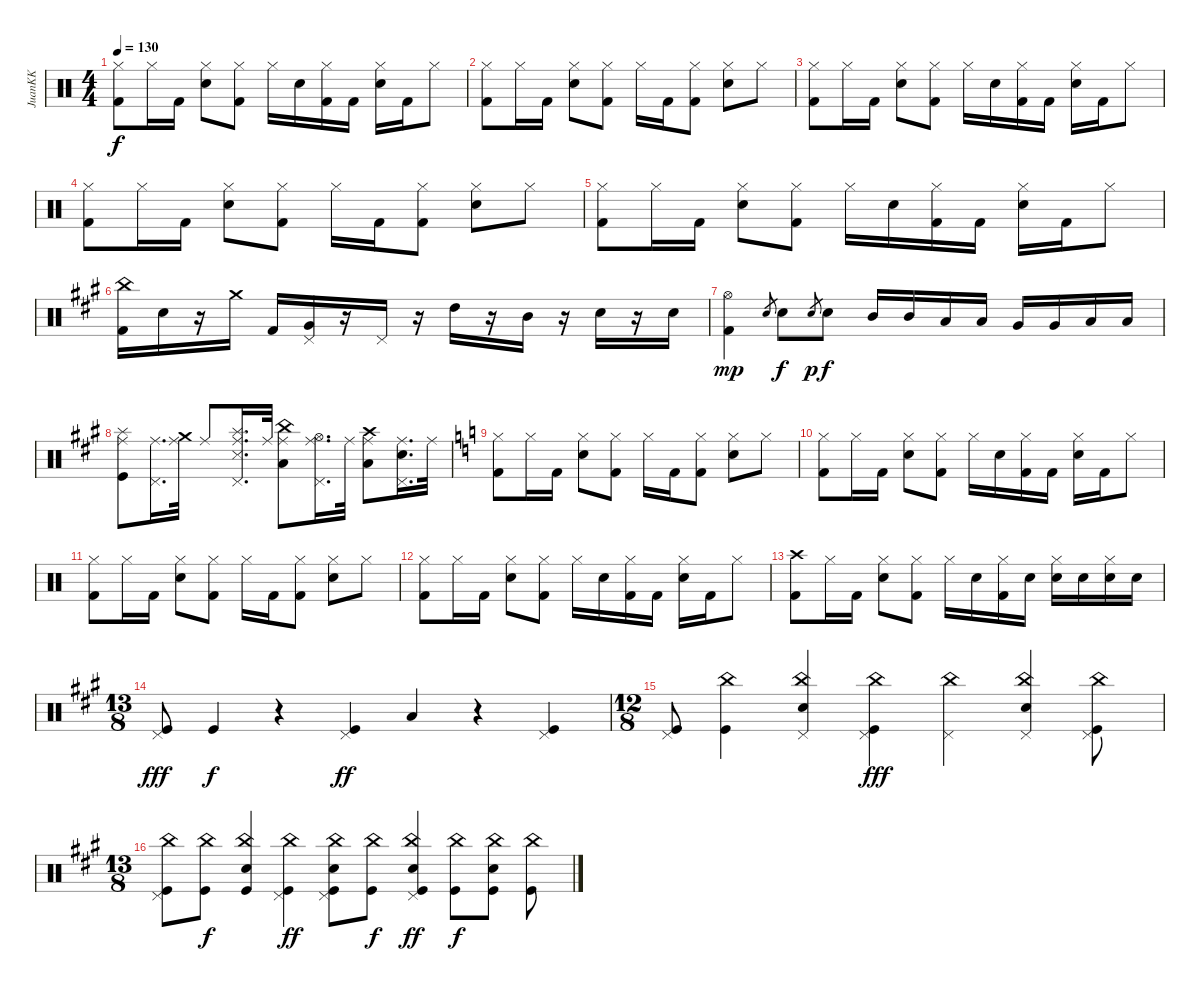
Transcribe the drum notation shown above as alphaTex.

\track ("JuanKK" "JuanKK") {instrument percussion}
\staff {score}
\articulation defaults
\ts (4 4)
\tempo 130
\clef neutral
\ks c
("Hi-Hat (closed)" "Kick (hit) 2").8{dy f} "Hi-Hat (closed)".16 "Kick (hit) 2".16 ("Hi-Hat (closed)" "Electric Snare (hit)").8 ("Hi-Hat (closed)" "Kick (hit) 2").8 "Hi-Hat (closed)".16 "Electric Snare (hit)".16 ("Hi-Hat (closed)" "Kick (hit) 2").16 "Kick (hit) 2".16 ("Hi-Hat (closed)" "Electric Snare (hit)").16 "Kick (hit) 2".16 "Hi-Hat (closed)".8 |
("Hi-Hat (closed)" "Kick (hit) 2").8 "Hi-Hat (closed)".16 "Kick (hit) 2".16 ("Hi-Hat (closed)" "Electric Snare (hit)").8 ("Hi-Hat (closed)" "Kick (hit) 2").8 "Hi-Hat (closed)".16 "Kick (hit) 2".16 ("Hi-Hat (closed)" "Kick (hit) 2").8 ("Hi-Hat (closed)" "Electric Snare (hit)").8 "Hi-Hat (closed)".8 |
("Hi-Hat (closed)" "Kick (hit) 2").8 "Hi-Hat (closed)".16 "Kick (hit) 2".16 ("Hi-Hat (closed)" "Electric Snare (hit)").8 ("Hi-Hat (closed)" "Kick (hit) 2").8 "Hi-Hat (closed)".16 "Electric Snare (hit)".16 ("Hi-Hat (closed)" "Kick (hit) 2").16 "Kick (hit) 2".16 ("Hi-Hat (closed)" "Electric Snare (hit)").16 "Kick (hit) 2".16 "Hi-Hat (closed)".8 |
("Hi-Hat (closed)" "Kick (hit) 2").8 "Hi-Hat (closed)".16 "Kick (hit) 2".16 ("Hi-Hat (closed)" "Electric Snare (hit)").8 ("Hi-Hat (closed)" "Kick (hit) 2").8 "Hi-Hat (closed)".16 "Kick (hit) 2".16 ("Hi-Hat (closed)" "Kick (hit) 2").8 ("Hi-Hat (closed)" "Electric Snare (hit)").8 "Hi-Hat (closed)".8 |
("Hi-Hat (closed)" "Kick (hit) 2").8 "Hi-Hat (closed)".16 "Kick (hit) 2".16 ("Hi-Hat (closed)" "Electric Snare (hit)").8 ("Hi-Hat (closed)" "Kick (hit) 2").8 "Hi-Hat (closed)".16 "Electric Snare (hit)".16 ("Hi-Hat (closed)" "Kick (hit) 2").16 "Kick (hit) 2".16 ("Hi-Hat (closed)" "Electric Snare (hit)").16 "Kick (hit) 2".16 "Hi-Hat (closed)".8 |
\ks a
("China (hit)" "Kick (hit) 2").16 "Electric Snare (hit)".16 r.16 "Crash medium (hit)".16 "Kick (hit) 2".16 ("Very Low Tom (hit)" "Pedal Hi-Hat (hit)").16 r.16 "Pedal Hi-Hat (hit)".16 r.16 "High Tom (hit)".16 r.16 "Mid Tom (hit)".16 r.16 "Electric Snare (hit)".16 r.16 "Electric Snare (hit)".16 |
("Hi-Hat (open)" "Kick (hit) 2").4{dy mp} "Electric Snare (hit)".8{gr} "Electric Snare (hit)".8{dy f} "Electric Snare (hit)".8{gr dy p} "Electric Snare (hit)".8{dy f} "Mid Tom (hit)".16 "Mid Tom (hit)".16 "Low Tom (hit)".16 "Low Tom (hit)".16 "Very Low Tom (hit)".16 "Very Low Tom (hit)".16 "Low Floor Tom (hit)".16 "Low Floor Tom (hit)".16 |
("Kick (hit)" "Ride (middle)" "Splash (hit)").8 ("Pedal Hi-Hat (hit)" "Ride (middle)").16{d} ("Ride (middle)" "Crash medium (hit)").32 "Ride (middle)".8 ("Metronome (hit)" "Pedal Hi-Hat (hit)" "Ride (middle)" "Splash (hit)").16{d} "Ride (middle)".32 ("Low Tom (hit)" "Ride (middle)" "China (hit)").8 ("Pedal Hi-Hat (hit)" "Ride (middle)" "Hi-Hat (open)").16{d} "Ride (middle)".32 ("Low Tom (hit)" "Ride (middle)" "Crash high (hit)").8 ("Electric Snare (hit)" "Pedal Hi-Hat (hit)" "Ride (middle)").16{d} "Ride (middle)".32 |
\ks c
("Hi-Hat (closed)" "Kick (hit) 2").8 "Hi-Hat (closed)".16 "Kick (hit) 2".16 ("Hi-Hat (closed)" "Electric Snare (hit)").8 ("Hi-Hat (closed)" "Kick (hit) 2").8 "Hi-Hat (closed)".16 "Kick (hit) 2".16 ("Hi-Hat (closed)" "Kick (hit) 2").8 ("Hi-Hat (closed)" "Electric Snare (hit)").8 "Hi-Hat (closed)".8 |
("Hi-Hat (closed)" "Kick (hit) 2").8 "Hi-Hat (closed)".16 "Kick (hit) 2".16 ("Hi-Hat (closed)" "Electric Snare (hit)").8 ("Hi-Hat (closed)" "Kick (hit) 2").8 "Hi-Hat (closed)".16 "Electric Snare (hit)".16 ("Hi-Hat (closed)" "Kick (hit) 2").16 "Kick (hit) 2".16 ("Hi-Hat (closed)" "Electric Snare (hit)").16 "Kick (hit) 2".16 "Hi-Hat (closed)".8 |
("Hi-Hat (closed)" "Kick (hit) 2").8 "Hi-Hat (closed)".16 "Kick (hit) 2".16 ("Hi-Hat (closed)" "Electric Snare (hit)").8 ("Hi-Hat (closed)" "Kick (hit) 2").8 "Hi-Hat (closed)".16 "Kick (hit) 2".16 ("Hi-Hat (closed)" "Kick (hit) 2").8 ("Hi-Hat (closed)" "Electric Snare (hit)").8 "Hi-Hat (closed)".8 |
("Hi-Hat (closed)" "Kick (hit) 2").8 "Hi-Hat (closed)".16 "Kick (hit) 2".16 ("Hi-Hat (closed)" "Electric Snare (hit)").8 ("Hi-Hat (closed)" "Kick (hit) 2").8 "Hi-Hat (closed)".16 "Electric Snare (hit)".16 ("Hi-Hat (closed)" "Kick (hit) 2").16 "Kick (hit) 2".16 ("Hi-Hat (closed)" "Electric Snare (hit)").16 "Kick (hit) 2".16 "Hi-Hat (closed)".8 |
("Crash high (hit)" "Kick (hit) 2").8 "Hi-Hat (closed)".16 "Kick (hit) 2".16 ("Hi-Hat (closed)" "Electric Snare (hit)").8 ("Hi-Hat (closed)" "Kick (hit) 2").8 "Hi-Hat (closed)".16 "Electric Snare (hit)".16 ("Hi-Hat (closed)" "Kick (hit) 2").16 "Electric Snare (hit)".16 ("Hi-Hat (closed)" "Electric Snare (hit)").16 "Electric Snare (hit)".16 ("Hi-Hat (closed)" "Electric Snare (hit)").16 "Electric Snare (hit)".16 |
\ts (13 8)
\ks a
("Kick (hit)" "Pedal Hi-Hat (hit)").8{dy fff} "Kick (hit)".4{dy f} r.4 ("Kick (hit)" "Pedal Hi-Hat (hit)").4{dy ff} "Low Floor Tom (hit)".4 r.4 ("Kick (hit)" "Pedal Hi-Hat (hit)").4 |
\ts (12 8)
("Kick (hit)" "Pedal Hi-Hat (hit)").8 ("Kick (hit)" "China (hit)").4 ("Electric Snare (hit)" "Pedal Hi-Hat (hit)" "China (hit)").4 ("Kick (hit)" "Pedal Hi-Hat (hit)" "China (hit)").4{dy fff} ("Pedal Hi-Hat (hit)" "China (hit)").4 ("Electric Snare (hit)" "Pedal Hi-Hat (hit)" "China (hit)").4 ("Kick (hit)" "Pedal Hi-Hat (hit)" "China (hit)").8 |
\ts (13 8)
("Kick (hit)" "Pedal Hi-Hat (hit)" "China (hit)").8 ("Kick (hit)" "China (hit)").8{dy f} ("Kick (hit)" "Electric Snare (hit)" "China (hit)").4 ("Kick (hit)" "Pedal Hi-Hat (hit)" "China (hit)").4{dy ff} ("Kick (hit)" "Electric Snare (hit)" "Pedal Hi-Hat (hit)" "China (hit)").8 ("Kick (hit)" "China (hit)").8{dy f} ("Kick (hit)" "Electric Snare (hit)" "Pedal Hi-Hat (hit)" "China (hit)").4{dy ff} ("Kick (hit)" "China (hit)").8{dy f} ("Kick (hit)" "Electric Snare (hit)" "China (hit)").8 ("Kick (hit)" "China (hit)").8
